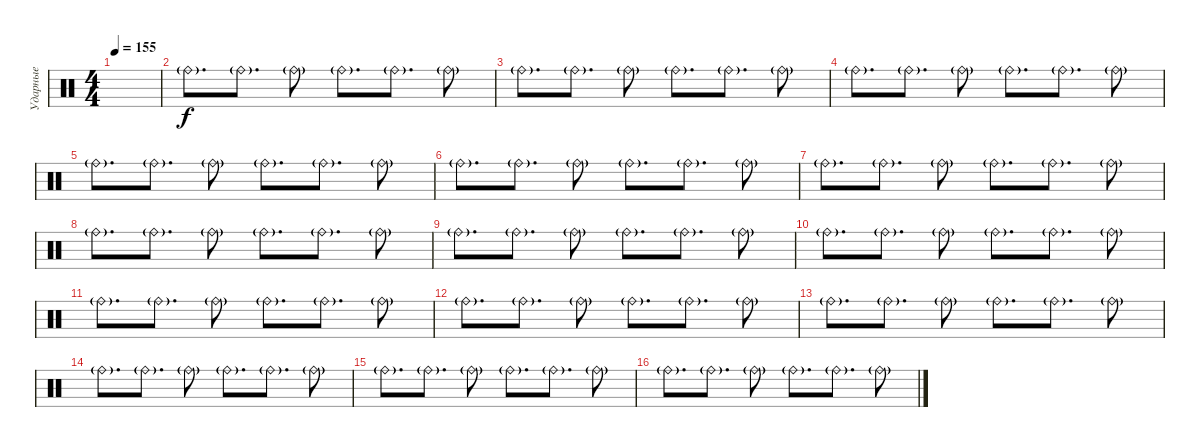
\track ("Ударные" "Ударные") {instrument percussion}
\staff {score}
\articulation defaults
\ts (4 4)
\tempo 155
\clef neutral
\ks c
|
"Ride (bell)"{g}.8{d} "Ride (bell)"{g}.8{d} "Ride (bell)"{g}.8 "Ride (bell)"{g}.8{d} "Ride (bell)"{g}.8{d} "Ride (bell)"{g}.8 |
"Ride (bell)"{g}.8{d} "Ride (bell)"{g}.8{d} "Ride (bell)"{g}.8 "Ride (bell)"{g}.8{d} "Ride (bell)"{g}.8{d} "Ride (bell)"{g}.8 |
"Ride (bell)"{g}.8{d} "Ride (bell)"{g}.8{d} "Ride (bell)"{g}.8 "Ride (bell)"{g}.8{d} "Ride (bell)"{g}.8{d} "Ride (bell)"{g}.8 |
"Ride (bell)"{g}.8{d} "Ride (bell)"{g}.8{d} "Ride (bell)"{g}.8 "Ride (bell)"{g}.8{d} "Ride (bell)"{g}.8{d} "Ride (bell)"{g}.8 |
"Ride (bell)"{g}.8{d} "Ride (bell)"{g}.8{d} "Ride (bell)"{g}.8 "Ride (bell)"{g}.8{d} "Ride (bell)"{g}.8{d} "Ride (bell)"{g}.8 |
"Ride (bell)"{g}.8{d} "Ride (bell)"{g}.8{d} "Ride (bell)"{g}.8 "Ride (bell)"{g}.8{d} "Ride (bell)"{g}.8{d} "Ride (bell)"{g}.8 |
"Ride (bell)"{g}.8{d} "Ride (bell)"{g}.8{d} "Ride (bell)"{g}.8 "Ride (bell)"{g}.8{d} "Ride (bell)"{g}.8{d} "Ride (bell)"{g}.8 |
"Ride (bell)"{g}.8{d} "Ride (bell)"{g}.8{d} "Ride (bell)"{g}.8 "Ride (bell)"{g}.8{d} "Ride (bell)"{g}.8{d} "Ride (bell)"{g}.8 |
"Ride (bell)"{g}.8{d} "Ride (bell)"{g}.8{d} "Ride (bell)"{g}.8 "Ride (bell)"{g}.8{d} "Ride (bell)"{g}.8{d} "Ride (bell)"{g}.8 |
"Ride (bell)"{g}.8{d} "Ride (bell)"{g}.8{d} "Ride (bell)"{g}.8 "Ride (bell)"{g}.8{d} "Ride (bell)"{g}.8{d} "Ride (bell)"{g}.8 |
"Ride (bell)"{g}.8{d} "Ride (bell)"{g}.8{d} "Ride (bell)"{g}.8 "Ride (bell)"{g}.8{d} "Ride (bell)"{g}.8{d} "Ride (bell)"{g}.8 |
"Ride (bell)"{g}.8{d} "Ride (bell)"{g}.8{d} "Ride (bell)"{g}.8 "Ride (bell)"{g}.8{d} "Ride (bell)"{g}.8{d} "Ride (bell)"{g}.8 |
"Ride (bell)"{g}.8{d} "Ride (bell)"{g}.8{d} "Ride (bell)"{g}.8 "Ride (bell)"{g}.8{d} "Ride (bell)"{g}.8{d} "Ride (bell)"{g}.8 |
"Ride (bell)"{g}.8{d} "Ride (bell)"{g}.8{d} "Ride (bell)"{g}.8 "Ride (bell)"{g}.8{d} "Ride (bell)"{g}.8{d} "Ride (bell)"{g}.8 |
"Ride (bell)"{g}.8{d} "Ride (bell)"{g}.8{d} "Ride (bell)"{g}.8 "Ride (bell)"{g}.8{d} "Ride (bell)"{g}.8{d} "Ride (bell)"{g}.8
